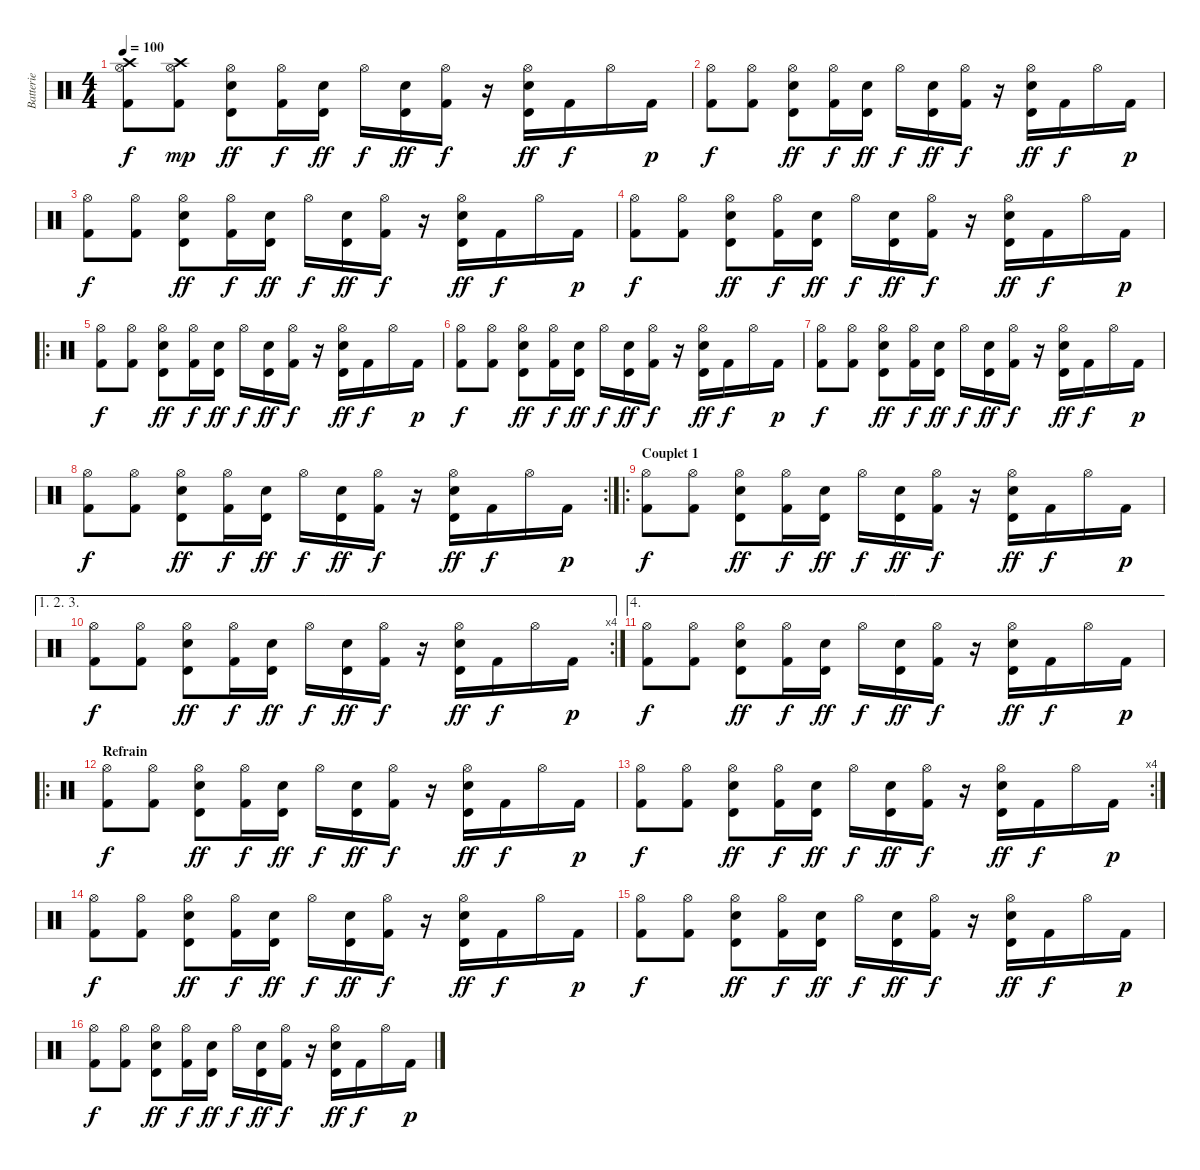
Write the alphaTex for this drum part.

\track ("Batterie" "Batterie") {instrument percussion}
\staff {score}
\articulation defaults
\ts (4 4)
\tempo 100
\clef neutral
\ks c
("Crash high (hit)" "Hi-Hat (open)" "Kick (hit) 2").8{dy f} ("Crash high (hit)" "Hi-Hat (open)" "Kick (hit) 2").8{dy mp} ("Hi-Hat (open)" "Timbale high (hit)" "Electric Snare (hit)").8{dy ff} ("Hi-Hat (open)" "Kick (hit) 2").16{dy f} ("Timbale high (hit)" "Electric Snare (hit)").16{dy ff} "Hi-Hat (open)".16{dy f} ("Timbale high (hit)" "Electric Snare (hit)").16{dy ff} ("Hi-Hat (open)" "Kick (hit) 2").16{dy f} r.16 ("Hi-Hat (open)" "Timbale high (hit)" "Electric Snare (hit)").16{dy ff} "Kick (hit) 2".16{dy f} "Hi-Hat (open)".16 "Kick (hit) 2".16{dy p} |
("Hi-Hat (open)" "Kick (hit) 2").8{dy f} ("Hi-Hat (open)" "Kick (hit) 2").8 ("Hi-Hat (open)" "Timbale high (hit)" "Electric Snare (hit)").8{dy ff} ("Hi-Hat (open)" "Kick (hit) 2").16{dy f} ("Timbale high (hit)" "Electric Snare (hit)").16{dy ff} "Hi-Hat (open)".16{dy f} ("Timbale high (hit)" "Electric Snare (hit)").16{dy ff} ("Hi-Hat (open)" "Kick (hit) 2").16{dy f} r.16 ("Hi-Hat (open)" "Timbale high (hit)" "Electric Snare (hit)").16{dy ff} "Kick (hit) 2".16{dy f} "Hi-Hat (open)".16 "Kick (hit) 2".16{dy p} |
("Hi-Hat (open)" "Kick (hit) 2").8{dy f} ("Hi-Hat (open)" "Kick (hit) 2").8 ("Hi-Hat (open)" "Timbale high (hit)" "Electric Snare (hit)").8{dy ff} ("Hi-Hat (open)" "Kick (hit) 2").16{dy f} ("Timbale high (hit)" "Electric Snare (hit)").16{dy ff} "Hi-Hat (open)".16{dy f} ("Timbale high (hit)" "Electric Snare (hit)").16{dy ff} ("Hi-Hat (open)" "Kick (hit) 2").16{dy f} r.16 ("Hi-Hat (open)" "Timbale high (hit)" "Electric Snare (hit)").16{dy ff} "Kick (hit) 2".16{dy f} "Hi-Hat (open)".16 "Kick (hit) 2".16{dy p} |
("Hi-Hat (open)" "Kick (hit) 2").8{dy f} ("Hi-Hat (open)" "Kick (hit) 2").8 ("Hi-Hat (open)" "Timbale high (hit)" "Electric Snare (hit)").8{dy ff} ("Hi-Hat (open)" "Kick (hit) 2").16{dy f} ("Timbale high (hit)" "Electric Snare (hit)").16{dy ff} "Hi-Hat (open)".16{dy f} ("Timbale high (hit)" "Electric Snare (hit)").16{dy ff} ("Hi-Hat (open)" "Kick (hit) 2").16{dy f} r.16 ("Hi-Hat (open)" "Timbale high (hit)" "Electric Snare (hit)").16{dy ff} "Kick (hit) 2".16{dy f} "Hi-Hat (open)".16 "Kick (hit) 2".16{dy p} |
\ro
("Hi-Hat (open)" "Kick (hit) 2").8{dy f} ("Hi-Hat (open)" "Kick (hit) 2").8 ("Hi-Hat (open)" "Timbale high (hit)" "Electric Snare (hit)").8{dy ff} ("Hi-Hat (open)" "Kick (hit) 2").16{dy f} ("Timbale high (hit)" "Electric Snare (hit)").16{dy ff} "Hi-Hat (open)".16{dy f} ("Timbale high (hit)" "Electric Snare (hit)").16{dy ff} ("Hi-Hat (open)" "Kick (hit) 2").16{dy f} r.16 ("Hi-Hat (open)" "Timbale high (hit)" "Electric Snare (hit)").16{dy ff} "Kick (hit) 2".16{dy f} "Hi-Hat (open)".16 "Kick (hit) 2".16{dy p} |
("Hi-Hat (open)" "Kick (hit) 2").8{dy f} ("Hi-Hat (open)" "Kick (hit) 2").8 ("Hi-Hat (open)" "Timbale high (hit)" "Electric Snare (hit)").8{dy ff} ("Hi-Hat (open)" "Kick (hit) 2").16{dy f} ("Timbale high (hit)" "Electric Snare (hit)").16{dy ff} "Hi-Hat (open)".16{dy f} ("Timbale high (hit)" "Electric Snare (hit)").16{dy ff} ("Hi-Hat (open)" "Kick (hit) 2").16{dy f} r.16 ("Hi-Hat (open)" "Timbale high (hit)" "Electric Snare (hit)").16{dy ff} "Kick (hit) 2".16{dy f} "Hi-Hat (open)".16 "Kick (hit) 2".16{dy p} |
("Hi-Hat (open)" "Kick (hit) 2").8{dy f} ("Hi-Hat (open)" "Kick (hit) 2").8 ("Hi-Hat (open)" "Timbale high (hit)" "Electric Snare (hit)").8{dy ff} ("Hi-Hat (open)" "Kick (hit) 2").16{dy f} ("Timbale high (hit)" "Electric Snare (hit)").16{dy ff} "Hi-Hat (open)".16{dy f} ("Timbale high (hit)" "Electric Snare (hit)").16{dy ff} ("Hi-Hat (open)" "Kick (hit) 2").16{dy f} r.16 ("Hi-Hat (open)" "Timbale high (hit)" "Electric Snare (hit)").16{dy ff} "Kick (hit) 2".16{dy f} "Hi-Hat (open)".16 "Kick (hit) 2".16{dy p} |
\rc 2
("Hi-Hat (open)" "Kick (hit) 2").8{dy f} ("Hi-Hat (open)" "Kick (hit) 2").8 ("Hi-Hat (open)" "Timbale high (hit)" "Electric Snare (hit)").8{dy ff} ("Hi-Hat (open)" "Kick (hit) 2").16{dy f} ("Timbale high (hit)" "Electric Snare (hit)").16{dy ff} "Hi-Hat (open)".16{dy f} ("Timbale high (hit)" "Electric Snare (hit)").16{dy ff} ("Hi-Hat (open)" "Kick (hit) 2").16{dy f} r.16 ("Hi-Hat (open)" "Timbale high (hit)" "Electric Snare (hit)").16{dy ff} "Kick (hit) 2".16{dy f} "Hi-Hat (open)".16 "Kick (hit) 2".16{dy p} |
\ro
\section ("" "Couplet 1")
("Hi-Hat (open)" "Kick (hit) 2").8{dy f} ("Hi-Hat (open)" "Kick (hit) 2").8 ("Hi-Hat (open)" "Timbale high (hit)" "Electric Snare (hit)").8{dy ff} ("Hi-Hat (open)" "Kick (hit) 2").16{dy f} ("Timbale high (hit)" "Electric Snare (hit)").16{dy ff} "Hi-Hat (open)".16{dy f} ("Timbale high (hit)" "Electric Snare (hit)").16{dy ff} ("Hi-Hat (open)" "Kick (hit) 2").16{dy f} r.16 ("Hi-Hat (open)" "Timbale high (hit)" "Electric Snare (hit)").16{dy ff} "Kick (hit) 2".16{dy f} "Hi-Hat (open)".16 "Kick (hit) 2".16{dy p} |
\ae (1 2 3)
\rc 4
("Hi-Hat (open)" "Kick (hit) 2").8{dy f} ("Hi-Hat (open)" "Kick (hit) 2").8 ("Hi-Hat (open)" "Timbale high (hit)" "Electric Snare (hit)").8{dy ff} ("Hi-Hat (open)" "Kick (hit) 2").16{dy f} ("Timbale high (hit)" "Electric Snare (hit)").16{dy ff} "Hi-Hat (open)".16{dy f} ("Timbale high (hit)" "Electric Snare (hit)").16{dy ff} ("Hi-Hat (open)" "Kick (hit) 2").16{dy f} r.16 ("Hi-Hat (open)" "Timbale high (hit)" "Electric Snare (hit)").16{dy ff} "Kick (hit) 2".16{dy f} "Hi-Hat (open)".16 "Kick (hit) 2".16{dy p} |
\ae 4
("Hi-Hat (open)" "Kick (hit) 2").8{dy f} ("Hi-Hat (open)" "Kick (hit) 2").8 ("Hi-Hat (open)" "Timbale high (hit)" "Electric Snare (hit)").8{dy ff} ("Hi-Hat (open)" "Kick (hit) 2").16{dy f} ("Timbale high (hit)" "Electric Snare (hit)").16{dy ff} "Hi-Hat (open)".16{dy f} ("Timbale high (hit)" "Electric Snare (hit)").16{dy ff} ("Hi-Hat (open)" "Kick (hit) 2").16{dy f} r.16 ("Hi-Hat (open)" "Timbale high (hit)" "Electric Snare (hit)").16{dy ff} "Kick (hit) 2".16{dy f} "Hi-Hat (open)".16 "Kick (hit) 2".16{dy p} |
\ro
\section ("" "Refrain")
("Hi-Hat (open)" "Kick (hit) 2").8{dy f} ("Hi-Hat (open)" "Kick (hit) 2").8 ("Hi-Hat (open)" "Timbale high (hit)" "Electric Snare (hit)").8{dy ff} ("Hi-Hat (open)" "Kick (hit) 2").16{dy f} ("Timbale high (hit)" "Electric Snare (hit)").16{dy ff} "Hi-Hat (open)".16{dy f} ("Timbale high (hit)" "Electric Snare (hit)").16{dy ff} ("Hi-Hat (open)" "Kick (hit) 2").16{dy f} r.16 ("Hi-Hat (open)" "Timbale high (hit)" "Electric Snare (hit)").16{dy ff} "Kick (hit) 2".16{dy f} "Hi-Hat (open)".16 "Kick (hit) 2".16{dy p} |
\rc 4
("Hi-Hat (open)" "Kick (hit) 2").8{dy f} ("Hi-Hat (open)" "Kick (hit) 2").8 ("Hi-Hat (open)" "Timbale high (hit)" "Electric Snare (hit)").8{dy ff} ("Hi-Hat (open)" "Kick (hit) 2").16{dy f} ("Timbale high (hit)" "Electric Snare (hit)").16{dy ff} "Hi-Hat (open)".16{dy f} ("Timbale high (hit)" "Electric Snare (hit)").16{dy ff} ("Hi-Hat (open)" "Kick (hit) 2").16{dy f} r.16 ("Hi-Hat (open)" "Timbale high (hit)" "Electric Snare (hit)").16{dy ff} "Kick (hit) 2".16{dy f} "Hi-Hat (open)".16 "Kick (hit) 2".16{dy p} |
("Hi-Hat (open)" "Kick (hit) 2").8{dy f} ("Hi-Hat (open)" "Kick (hit) 2").8 ("Hi-Hat (open)" "Timbale high (hit)" "Electric Snare (hit)").8{dy ff} ("Hi-Hat (open)" "Kick (hit) 2").16{dy f} ("Timbale high (hit)" "Electric Snare (hit)").16{dy ff} "Hi-Hat (open)".16{dy f} ("Timbale high (hit)" "Electric Snare (hit)").16{dy ff} ("Hi-Hat (open)" "Kick (hit) 2").16{dy f} r.16 ("Hi-Hat (open)" "Timbale high (hit)" "Electric Snare (hit)").16{dy ff} "Kick (hit) 2".16{dy f} "Hi-Hat (open)".16 "Kick (hit) 2".16{dy p} |
("Hi-Hat (open)" "Kick (hit) 2").8{dy f} ("Hi-Hat (open)" "Kick (hit) 2").8 ("Hi-Hat (open)" "Timbale high (hit)" "Electric Snare (hit)").8{dy ff} ("Hi-Hat (open)" "Kick (hit) 2").16{dy f} ("Timbale high (hit)" "Electric Snare (hit)").16{dy ff} "Hi-Hat (open)".16{dy f} ("Timbale high (hit)" "Electric Snare (hit)").16{dy ff} ("Hi-Hat (open)" "Kick (hit) 2").16{dy f} r.16 ("Hi-Hat (open)" "Timbale high (hit)" "Electric Snare (hit)").16{dy ff} "Kick (hit) 2".16{dy f} "Hi-Hat (open)".16 "Kick (hit) 2".16{dy p} |
("Hi-Hat (open)" "Kick (hit) 2").8{dy f} ("Hi-Hat (open)" "Kick (hit) 2").8 ("Hi-Hat (open)" "Timbale high (hit)" "Electric Snare (hit)").8{dy ff} ("Hi-Hat (open)" "Kick (hit) 2").16{dy f} ("Timbale high (hit)" "Electric Snare (hit)").16{dy ff} "Hi-Hat (open)".16{dy f} ("Timbale high (hit)" "Electric Snare (hit)").16{dy ff} ("Hi-Hat (open)" "Kick (hit) 2").16{dy f} r.16 ("Hi-Hat (open)" "Timbale high (hit)" "Electric Snare (hit)").16{dy ff} "Kick (hit) 2".16{dy f} "Hi-Hat (open)".16 "Kick (hit) 2".16{dy p}
